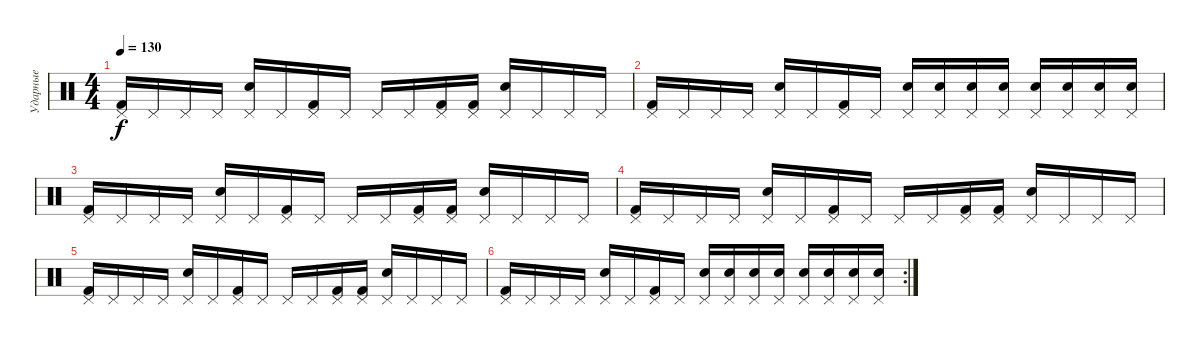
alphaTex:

\track ("Ударные" "Ударные") {instrument percussion}
\staff {score}
\articulation defaults
\ts (4 4)
\tempo 130
\clef neutral
\ks c
("Pedal Hi-Hat (hit)" "Kick (hit) 2").16{dy f} "Pedal Hi-Hat (hit)".16 "Pedal Hi-Hat (hit)".16 "Pedal Hi-Hat (hit)".16 ("Pedal Hi-Hat (hit)" "Electric Snare (hit)").16 "Pedal Hi-Hat (hit)".16 ("Pedal Hi-Hat (hit)" "Kick (hit) 2").16 "Pedal Hi-Hat (hit)".16 "Pedal Hi-Hat (hit)".16 "Pedal Hi-Hat (hit)".16 ("Pedal Hi-Hat (hit)" "Kick (hit) 2").16 ("Pedal Hi-Hat (hit)" "Kick (hit) 2").16 ("Pedal Hi-Hat (hit)" "Electric Snare (hit)").16 "Pedal Hi-Hat (hit)".16 "Pedal Hi-Hat (hit)".16 "Pedal Hi-Hat (hit)".16 |
("Pedal Hi-Hat (hit)" "Kick (hit) 2").16 "Pedal Hi-Hat (hit)".16 "Pedal Hi-Hat (hit)".16 "Pedal Hi-Hat (hit)".16 ("Pedal Hi-Hat (hit)" "Electric Snare (hit)").16 "Pedal Hi-Hat (hit)".16 ("Pedal Hi-Hat (hit)" "Kick (hit) 2").16 "Pedal Hi-Hat (hit)".16 ("Pedal Hi-Hat (hit)" "Electric Snare (hit)").16 ("Pedal Hi-Hat (hit)" "Electric Snare (hit)").16 ("Pedal Hi-Hat (hit)" "Electric Snare (hit)").16 ("Pedal Hi-Hat (hit)" "Electric Snare (hit)").16 ("Pedal Hi-Hat (hit)" "Electric Snare (hit)").16 ("Pedal Hi-Hat (hit)" "Electric Snare (hit)").16 ("Pedal Hi-Hat (hit)" "Electric Snare (hit)").16 ("Pedal Hi-Hat (hit)" "Electric Snare (hit)").16 |
("Pedal Hi-Hat (hit)" "Kick (hit) 2").16 "Pedal Hi-Hat (hit)".16 "Pedal Hi-Hat (hit)".16 "Pedal Hi-Hat (hit)".16 ("Pedal Hi-Hat (hit)" "Electric Snare (hit)").16 "Pedal Hi-Hat (hit)".16 ("Pedal Hi-Hat (hit)" "Kick (hit) 2").16 "Pedal Hi-Hat (hit)".16 "Pedal Hi-Hat (hit)".16 "Pedal Hi-Hat (hit)".16 ("Pedal Hi-Hat (hit)" "Kick (hit) 2").16 ("Pedal Hi-Hat (hit)" "Kick (hit) 2").16 ("Pedal Hi-Hat (hit)" "Electric Snare (hit)").16 "Pedal Hi-Hat (hit)".16 "Pedal Hi-Hat (hit)".16 "Pedal Hi-Hat (hit)".16 |
("Pedal Hi-Hat (hit)" "Kick (hit) 2").16 "Pedal Hi-Hat (hit)".16 "Pedal Hi-Hat (hit)".16 "Pedal Hi-Hat (hit)".16 ("Pedal Hi-Hat (hit)" "Electric Snare (hit)").16 "Pedal Hi-Hat (hit)".16 ("Pedal Hi-Hat (hit)" "Kick (hit) 2").16 "Pedal Hi-Hat (hit)".16 "Pedal Hi-Hat (hit)".16 "Pedal Hi-Hat (hit)".16 ("Pedal Hi-Hat (hit)" "Kick (hit) 2").16 ("Pedal Hi-Hat (hit)" "Kick (hit) 2").16 ("Pedal Hi-Hat (hit)" "Electric Snare (hit)").16 "Pedal Hi-Hat (hit)".16 "Pedal Hi-Hat (hit)".16 "Pedal Hi-Hat (hit)".16 |
("Pedal Hi-Hat (hit)" "Kick (hit) 2").16 "Pedal Hi-Hat (hit)".16 "Pedal Hi-Hat (hit)".16 "Pedal Hi-Hat (hit)".16 ("Pedal Hi-Hat (hit)" "Electric Snare (hit)").16 "Pedal Hi-Hat (hit)".16 ("Pedal Hi-Hat (hit)" "Kick (hit) 2").16 "Pedal Hi-Hat (hit)".16 "Pedal Hi-Hat (hit)".16 "Pedal Hi-Hat (hit)".16 ("Pedal Hi-Hat (hit)" "Kick (hit) 2").16 ("Pedal Hi-Hat (hit)" "Kick (hit) 2").16 ("Pedal Hi-Hat (hit)" "Electric Snare (hit)").16 "Pedal Hi-Hat (hit)".16 "Pedal Hi-Hat (hit)".16 "Pedal Hi-Hat (hit)".16 |
\rc 2
("Pedal Hi-Hat (hit)" "Kick (hit) 2").16 "Pedal Hi-Hat (hit)".16 "Pedal Hi-Hat (hit)".16 "Pedal Hi-Hat (hit)".16 ("Pedal Hi-Hat (hit)" "Electric Snare (hit)").16 "Pedal Hi-Hat (hit)".16 ("Pedal Hi-Hat (hit)" "Kick (hit) 2").16 "Pedal Hi-Hat (hit)".16 ("Pedal Hi-Hat (hit)" "Electric Snare (hit)").16 ("Pedal Hi-Hat (hit)" "Electric Snare (hit)").16 ("Pedal Hi-Hat (hit)" "Electric Snare (hit)").16 ("Pedal Hi-Hat (hit)" "Electric Snare (hit)").16 ("Pedal Hi-Hat (hit)" "Electric Snare (hit)").16 ("Pedal Hi-Hat (hit)" "Electric Snare (hit)").16 ("Pedal Hi-Hat (hit)" "Electric Snare (hit)").16 ("Pedal Hi-Hat (hit)" "Electric Snare (hit)").16
